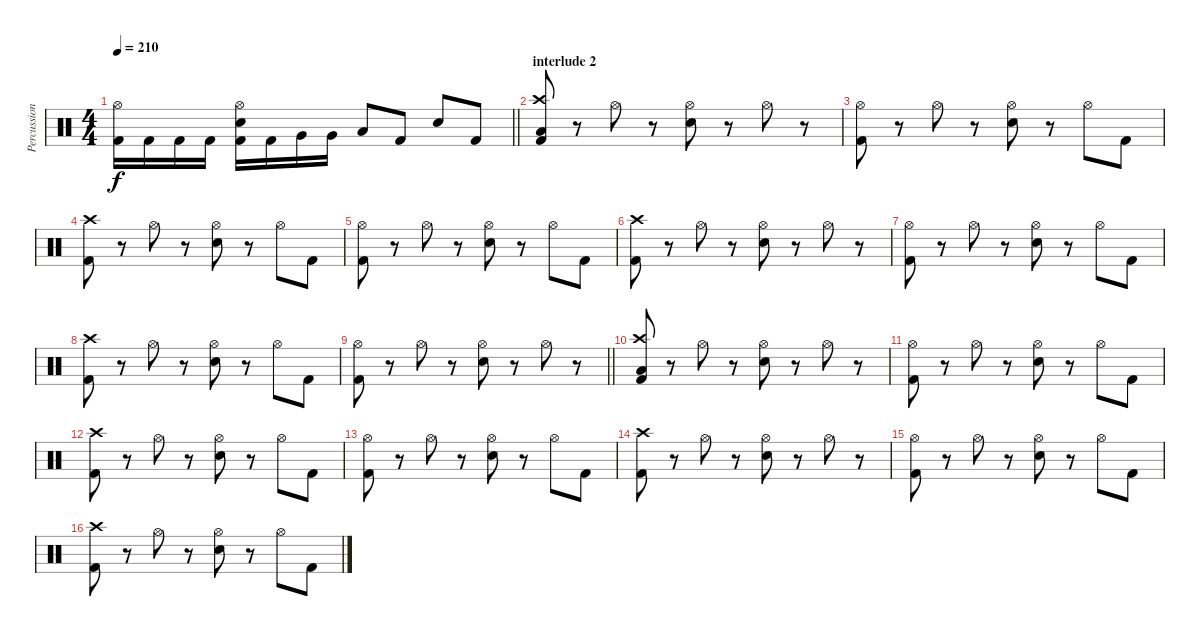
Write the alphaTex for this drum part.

\track ("Percussion" "Percussion") {instrument percussion}
\staff {score}
\articulation defaults
\ts (4 4)
\tempo 210
\clef neutral
\barLineRight lightlight
\ks c
("Hi-Hat (open)" "Kick (hit) 2").16{dy f} "Kick (hit) 2".16 "Kick (hit) 2".16 "Kick (hit) 2".16 ("Hi-Hat (open)" "Snare (hit) 2" "Kick (hit) 2").16 "Kick (hit) 2".16 "Very Low Tom (hit)".16 "Very Low Tom (hit)".16 "Low Tom (hit)".8 "Kick (hit) 2".8 "Snare (hit) 2".8 "Kick (hit) 2".8 |
\section ("" "interlude 2")
("Crash high (hit)" "Low Floor Tom (hit)" "Kick (hit) 2").8 r.8 "Hi-Hat (open)".8 r.8 ("Hi-Hat (open)" "Snare (hit) 2").8 r.8 "Hi-Hat (open)".8 r.8 |
("Hi-Hat (open)" "Kick (hit) 2").8 r.8 "Hi-Hat (open)".8 r.8 ("Hi-Hat (open)" "Snare (hit) 2").8 r.8 "Hi-Hat (open)".8 "Kick (hit) 2".8 |
("Crash high (hit)" "Kick (hit) 2").8 r.8 "Hi-Hat (open)".8 r.8 ("Hi-Hat (open)" "Snare (hit) 2").8 r.8 "Hi-Hat (open)".8 "Kick (hit) 2".8 |
("Hi-Hat (open)" "Kick (hit) 2").8 r.8 "Hi-Hat (open)".8 r.8 ("Hi-Hat (open)" "Snare (hit) 2").8 r.8 "Hi-Hat (open)".8 "Kick (hit) 2".8 |
("Crash high (hit)" "Kick (hit) 2").8 r.8 "Hi-Hat (open)".8 r.8 ("Hi-Hat (open)" "Snare (hit) 2").8 r.8 "Hi-Hat (open)".8 r.8 |
("Hi-Hat (open)" "Kick (hit) 2").8 r.8 "Hi-Hat (open)".8 r.8 ("Hi-Hat (open)" "Snare (hit) 2").8 r.8 "Hi-Hat (open)".8 "Kick (hit) 2".8 |
("Crash high (hit)" "Kick (hit) 2").8 r.8 "Hi-Hat (open)".8 r.8 ("Hi-Hat (open)" "Snare (hit) 2").8 r.8 "Hi-Hat (open)".8 "Kick (hit) 2".8 |
\barLineRight lightlight
("Hi-Hat (open)" "Kick (hit) 2").8 r.8 "Hi-Hat (open)".8 r.8 ("Hi-Hat (open)" "Snare (hit) 2").8 r.8 "Hi-Hat (open)".8 r.8 |
("Crash high (hit)" "Low Floor Tom (hit)" "Kick (hit) 2").8 r.8 "Hi-Hat (open)".8 r.8 ("Hi-Hat (open)" "Snare (hit) 2").8 r.8 "Hi-Hat (open)".8 r.8 |
("Hi-Hat (open)" "Kick (hit) 2").8 r.8 "Hi-Hat (open)".8 r.8 ("Hi-Hat (open)" "Snare (hit) 2").8 r.8 "Hi-Hat (open)".8 "Kick (hit) 2".8 |
("Crash high (hit)" "Kick (hit) 2").8 r.8 "Hi-Hat (open)".8 r.8 ("Hi-Hat (open)" "Snare (hit) 2").8 r.8 "Hi-Hat (open)".8 "Kick (hit) 2".8 |
("Hi-Hat (open)" "Kick (hit) 2").8 r.8 "Hi-Hat (open)".8 r.8 ("Hi-Hat (open)" "Snare (hit) 2").8 r.8 "Hi-Hat (open)".8 "Kick (hit) 2".8 |
("Crash high (hit)" "Kick (hit) 2").8 r.8 "Hi-Hat (open)".8 r.8 ("Hi-Hat (open)" "Snare (hit) 2").8 r.8 "Hi-Hat (open)".8 r.8 |
("Hi-Hat (open)" "Kick (hit) 2").8 r.8 "Hi-Hat (open)".8 r.8 ("Hi-Hat (open)" "Snare (hit) 2").8 r.8 "Hi-Hat (open)".8 "Kick (hit) 2".8 |
("Crash high (hit)" "Kick (hit) 2").8 r.8 "Hi-Hat (open)".8 r.8 ("Hi-Hat (open)" "Snare (hit) 2").8 r.8 "Hi-Hat (open)".8 "Kick (hit) 2".8
